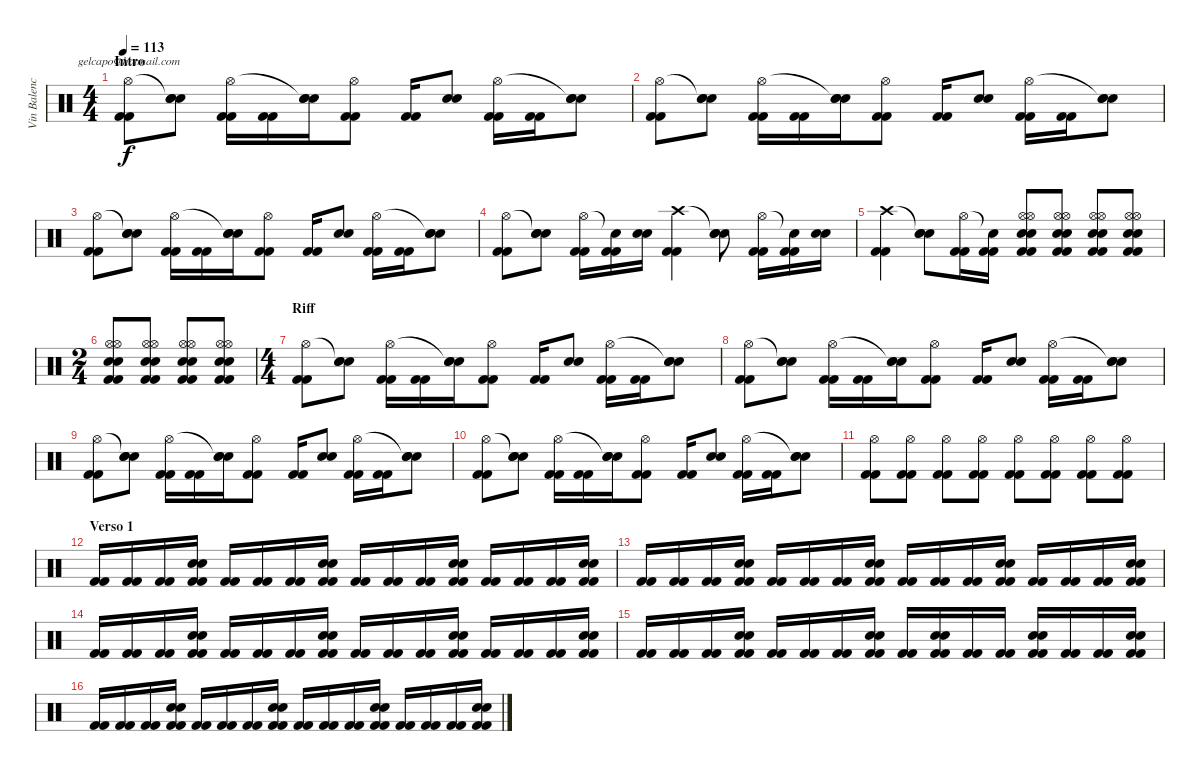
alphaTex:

\track ("Vin Balencia (bateria)" "Vin Balenc") {instrument percussion}
\staff {score}
\articulation defaults
\chord ("gelcapo@hotmail.com") {firstfret 0}
\ts (4 4)
\section ("" "Intro")
\tempo 113
\clef neutral
\ks c
("Kick (hit) 2" "Kick (hit) 2" "Hi-Hat (open)").8{ch "gelcapo@hotmail.com" dy f} ("Snare (hit) 2" "Snare (hit) 2" "Snare (hit)"{t}).8 ("Kick (hit) 2" "Kick (hit) 2" "Hi-Hat (open)").16 ("Kick (hit) 2" "Kick (hit) 2").16 ("Snare (hit) 2" "Snare (hit) 2" "Snare (hit)"{t}).16 ("Kick (hit) 2" "Kick (hit) 2" "Hi-Hat (open)").8 ("Kick (hit) 2" "Kick (hit) 2").16 ("Snare (hit) 2" "Snare (hit) 2").8 ("Kick (hit) 2" "Kick (hit) 2" "Hi-Hat (open)").16 ("Kick (hit) 2" "Kick (hit) 2").16 ("Snare (hit) 2" "Snare (hit) 2" "Snare (hit)"{t}).8 |
("Kick (hit) 2" "Kick (hit) 2" "Hi-Hat (open)").8 ("Snare (hit) 2" "Snare (hit) 2" "Snare (hit)"{t}).8 ("Kick (hit) 2" "Kick (hit) 2" "Hi-Hat (open)").16 ("Kick (hit) 2" "Kick (hit) 2").16 ("Snare (hit) 2" "Snare (hit) 2" "Snare (hit)"{t}).16 ("Kick (hit) 2" "Kick (hit) 2" "Hi-Hat (open)").8 ("Kick (hit) 2" "Kick (hit) 2").16 ("Snare (hit) 2" "Snare (hit) 2").8 ("Kick (hit) 2" "Kick (hit) 2" "Hi-Hat (open)").16 ("Kick (hit) 2" "Kick (hit) 2").16 ("Snare (hit) 2" "Snare (hit) 2" "Snare (hit)"{t}).8 |
("Kick (hit) 2" "Kick (hit) 2" "Hi-Hat (open)").8 ("Snare (hit) 2" "Snare (hit) 2" "Snare (hit)"{t}).8 ("Kick (hit) 2" "Kick (hit) 2" "Hi-Hat (open)").16 ("Kick (hit) 2" "Kick (hit) 2").16 ("Snare (hit) 2" "Snare (hit) 2" "Snare (hit)"{t}).16 ("Kick (hit) 2" "Kick (hit) 2" "Hi-Hat (open)").8 ("Kick (hit) 2" "Kick (hit) 2").16 ("Snare (hit) 2" "Snare (hit) 2").8 ("Kick (hit) 2" "Kick (hit) 2" "Hi-Hat (open)").16 ("Kick (hit) 2" "Kick (hit) 2").16 ("Snare (hit) 2" "Snare (hit) 2" "Snare (hit)"{t}).8 |
("Kick (hit) 2" "Kick (hit) 2" "Hi-Hat (open)").8 ("Snare (hit) 2" "Snare (hit) 2" "Snare (hit)"{t}).8 ("Kick (hit) 2" "Kick (hit) 2" "Hi-Hat (open)").16 ("Kick (hit) 2" "Kick (hit) 2" "Snare (hit)"{t}).16 ("Snare (hit) 2" "Snare (hit) 2").16 ("Kick (hit) 2" "Kick (hit) 2" "Crash high (hit)").4 ("Snare (hit) 2" "Snare (hit) 2" "Snare (hit)"{t}).8 ("Kick (hit) 2" "Kick (hit) 2" "Hi-Hat (open)").16 ("Kick (hit) 2" "Kick (hit) 2" "Snare (hit)"{t}).16 ("Snare (hit) 2" "Snare (hit) 2").16 |
("Kick (hit) 2" "Kick (hit) 2" "Crash high (hit)").4 ("Snare (hit) 2" "Snare (hit) 2" "Snare (hit)"{t}).8 ("Kick (hit) 2" "Kick (hit) 2" "Hi-Hat (open)").16 ("Kick (hit) 2" "Kick (hit) 2" "Snare (hit)"{t}).16 ("Kick (hit) 2" "Kick (hit) 2" "Snare (hit) 2" "Snare (hit) 2" "Hi-Hat (open)" "Hi-Hat (open)").8 ("Kick (hit) 2" "Kick (hit) 2" "Snare (hit) 2" "Snare (hit) 2" "Hi-Hat (open)" "Hi-Hat (open)").8 ("Kick (hit) 2" "Kick (hit) 2" "Snare (hit) 2" "Snare (hit) 2" "Hi-Hat (open)" "Hi-Hat (open)").8 ("Kick (hit) 2" "Kick (hit) 2" "Snare (hit) 2" "Snare (hit) 2" "Hi-Hat (open)" "Hi-Hat (open)").8 |
\ts (2 4)
("Kick (hit) 2" "Kick (hit) 2" "Snare (hit) 2" "Snare (hit) 2" "Hi-Hat (open)" "Hi-Hat (open)").8 ("Kick (hit) 2" "Kick (hit) 2" "Snare (hit) 2" "Snare (hit) 2" "Hi-Hat (open)" "Hi-Hat (open)").8 ("Kick (hit) 2" "Kick (hit) 2" "Snare (hit) 2" "Snare (hit) 2" "Hi-Hat (open)" "Hi-Hat (open)").8 ("Kick (hit) 2" "Kick (hit) 2" "Snare (hit) 2" "Snare (hit) 2" "Hi-Hat (open)" "Hi-Hat (open)").8 |
\ts (4 4)
\section ("" "Riff")
("Kick (hit) 2" "Kick (hit) 2" "Hi-Hat (open)").8 ("Snare (hit) 2" "Snare (hit) 2" "Snare (hit)"{t}).8 ("Kick (hit) 2" "Kick (hit) 2" "Hi-Hat (open)").16 ("Kick (hit) 2" "Kick (hit) 2").16 ("Snare (hit) 2" "Snare (hit) 2" "Snare (hit)"{t}).16 ("Kick (hit) 2" "Kick (hit) 2" "Hi-Hat (open)").8 ("Kick (hit) 2" "Kick (hit) 2").16 ("Snare (hit) 2" "Snare (hit) 2").8 ("Kick (hit) 2" "Kick (hit) 2" "Hi-Hat (open)").16 ("Kick (hit) 2" "Kick (hit) 2").16 ("Snare (hit) 2" "Snare (hit) 2" "Snare (hit)"{t}).8 |
("Kick (hit) 2" "Kick (hit) 2" "Hi-Hat (open)").8 ("Snare (hit) 2" "Snare (hit) 2" "Snare (hit)"{t}).8 ("Kick (hit) 2" "Kick (hit) 2" "Hi-Hat (open)").16 ("Kick (hit) 2" "Kick (hit) 2").16 ("Snare (hit) 2" "Snare (hit) 2" "Snare (hit)"{t}).16 ("Kick (hit) 2" "Kick (hit) 2" "Hi-Hat (open)").8 ("Kick (hit) 2" "Kick (hit) 2").16 ("Snare (hit) 2" "Snare (hit) 2").8 ("Kick (hit) 2" "Kick (hit) 2" "Hi-Hat (open)").16 ("Kick (hit) 2" "Kick (hit) 2").16 ("Snare (hit) 2" "Snare (hit) 2" "Snare (hit)"{t}).8 |
("Kick (hit) 2" "Kick (hit) 2" "Hi-Hat (open)").8 ("Snare (hit) 2" "Snare (hit) 2" "Snare (hit)"{t}).8 ("Kick (hit) 2" "Kick (hit) 2" "Hi-Hat (open)").16 ("Kick (hit) 2" "Kick (hit) 2").16 ("Snare (hit) 2" "Snare (hit) 2" "Snare (hit)"{t}).16 ("Kick (hit) 2" "Kick (hit) 2" "Hi-Hat (open)").8 ("Kick (hit) 2" "Kick (hit) 2").16 ("Snare (hit) 2" "Snare (hit) 2").8 ("Kick (hit) 2" "Kick (hit) 2" "Hi-Hat (open)").16 ("Kick (hit) 2" "Kick (hit) 2").16 ("Snare (hit) 2" "Snare (hit) 2" "Snare (hit)"{t}).8 |
("Kick (hit) 2" "Kick (hit) 2" "Hi-Hat (open)").8 ("Snare (hit) 2" "Snare (hit) 2" "Snare (hit)"{t}).8 ("Kick (hit) 2" "Kick (hit) 2" "Hi-Hat (open)").16 ("Kick (hit) 2" "Kick (hit) 2").16 ("Snare (hit) 2" "Snare (hit) 2" "Snare (hit)"{t}).16 ("Kick (hit) 2" "Kick (hit) 2" "Hi-Hat (open)").8 ("Kick (hit) 2" "Kick (hit) 2").16 ("Snare (hit) 2" "Snare (hit) 2").8 ("Kick (hit) 2" "Kick (hit) 2" "Hi-Hat (open)").16 ("Kick (hit) 2" "Kick (hit) 2").16 ("Snare (hit) 2" "Snare (hit) 2" "Snare (hit)"{t}).8 |
("Hi-Hat (open)" "Kick (hit) 2" "Kick (hit) 2").8 ("Hi-Hat (open)" "Kick (hit) 2" "Kick (hit) 2").8 ("Hi-Hat (open)" "Kick (hit) 2" "Kick (hit) 2").8 ("Hi-Hat (open)" "Kick (hit) 2" "Kick (hit) 2").8 ("Hi-Hat (open)" "Kick (hit) 2" "Kick (hit) 2").8 ("Hi-Hat (open)" "Kick (hit) 2" "Kick (hit) 2").8 ("Hi-Hat (open)" "Kick (hit) 2" "Kick (hit) 2").8 ("Hi-Hat (open)" "Kick (hit) 2" "Kick (hit) 2").8 |
\section ("" "Verso 1")
("Kick (hit) 2" "Kick (hit) 2").16 ("Kick (hit) 2" "Kick (hit) 2").16 ("Kick (hit) 2" "Kick (hit) 2").16 ("Electric Snare (hit)" "Electric Snare (hit)" "Kick (hit) 2" "Kick (hit) 2").16 ("Kick (hit) 2" "Kick (hit) 2").16 ("Kick (hit) 2" "Kick (hit) 2").16 ("Kick (hit) 2" "Kick (hit) 2").16 ("Electric Snare (hit)" "Electric Snare (hit)" "Kick (hit) 2" "Kick (hit) 2").16 ("Kick (hit) 2" "Kick (hit) 2").16 ("Kick (hit) 2" "Kick (hit) 2").16 ("Kick (hit) 2" "Kick (hit) 2").16 ("Electric Snare (hit)" "Electric Snare (hit)" "Kick (hit) 2" "Kick (hit) 2").16 ("Kick (hit) 2" "Kick (hit) 2").16 ("Kick (hit) 2" "Kick (hit) 2").16 ("Kick (hit) 2" "Kick (hit) 2").16 ("Electric Snare (hit)" "Electric Snare (hit)" "Kick (hit) 2" "Kick (hit) 2").16 |
("Kick (hit) 2" "Kick (hit) 2").16 ("Kick (hit) 2" "Kick (hit) 2").16 ("Kick (hit) 2" "Kick (hit) 2").16 ("Electric Snare (hit)" "Electric Snare (hit)" "Kick (hit) 2" "Kick (hit) 2").16 ("Kick (hit) 2" "Kick (hit) 2").16 ("Kick (hit) 2" "Kick (hit) 2").16 ("Kick (hit) 2" "Kick (hit) 2").16 ("Electric Snare (hit)" "Electric Snare (hit)" "Kick (hit) 2" "Kick (hit) 2").16 ("Kick (hit) 2" "Kick (hit) 2").16 ("Kick (hit) 2" "Kick (hit) 2").16 ("Kick (hit) 2" "Kick (hit) 2").16 ("Electric Snare (hit)" "Electric Snare (hit)" "Kick (hit) 2" "Kick (hit) 2").16 ("Kick (hit) 2" "Kick (hit) 2").16 ("Kick (hit) 2" "Kick (hit) 2").16 ("Kick (hit) 2" "Kick (hit) 2").16 ("Electric Snare (hit)" "Electric Snare (hit)" "Kick (hit) 2" "Kick (hit) 2").16 |
("Kick (hit) 2" "Kick (hit) 2").16 ("Kick (hit) 2" "Kick (hit) 2").16 ("Kick (hit) 2" "Kick (hit) 2").16 ("Electric Snare (hit)" "Electric Snare (hit)" "Kick (hit) 2" "Kick (hit) 2").16 ("Kick (hit) 2" "Kick (hit) 2").16 ("Kick (hit) 2" "Kick (hit) 2").16 ("Kick (hit) 2" "Kick (hit) 2").16 ("Electric Snare (hit)" "Electric Snare (hit)" "Kick (hit) 2" "Kick (hit) 2").16 ("Kick (hit) 2" "Kick (hit) 2").16 ("Kick (hit) 2" "Kick (hit) 2").16 ("Kick (hit) 2" "Kick (hit) 2").16 ("Electric Snare (hit)" "Electric Snare (hit)" "Kick (hit) 2" "Kick (hit) 2").16 ("Kick (hit) 2" "Kick (hit) 2").16 ("Kick (hit) 2" "Kick (hit) 2").16 ("Kick (hit) 2" "Kick (hit) 2").16 ("Electric Snare (hit)" "Electric Snare (hit)" "Kick (hit) 2" "Kick (hit) 2").16 |
("Kick (hit) 2" "Kick (hit) 2").16 ("Kick (hit) 2" "Kick (hit) 2").16 ("Kick (hit) 2" "Kick (hit) 2").16 ("Electric Snare (hit)" "Electric Snare (hit)" "Kick (hit) 2" "Kick (hit) 2").16 ("Kick (hit) 2" "Kick (hit) 2").16 ("Kick (hit) 2" "Kick (hit) 2").16 ("Kick (hit) 2" "Kick (hit) 2").16 ("Electric Snare (hit)" "Electric Snare (hit)" "Kick (hit) 2" "Kick (hit) 2").16 ("Kick (hit) 2" "Kick (hit) 2").16 ("Electric Snare (hit)" "Electric Snare (hit)" "Kick (hit) 2" "Kick (hit) 2").16 ("Kick (hit) 2" "Kick (hit) 2").16 ("Kick (hit) 2" "Kick (hit) 2").16 ("Electric Snare (hit)" "Electric Snare (hit)" "Kick (hit) 2" "Kick (hit) 2").16 ("Kick (hit) 2" "Kick (hit) 2").16 ("Kick (hit) 2" "Kick (hit) 2").16 ("Electric Snare (hit)" "Electric Snare (hit)" "Kick (hit) 2" "Kick (hit) 2").16 |
("Kick (hit) 2" "Kick (hit) 2").16 ("Kick (hit) 2" "Kick (hit) 2").16 ("Kick (hit) 2" "Kick (hit) 2").16 ("Electric Snare (hit)" "Electric Snare (hit)" "Kick (hit) 2" "Kick (hit) 2").16 ("Kick (hit) 2" "Kick (hit) 2").16 ("Kick (hit) 2" "Kick (hit) 2").16 ("Kick (hit) 2" "Kick (hit) 2").16 ("Electric Snare (hit)" "Electric Snare (hit)" "Kick (hit) 2" "Kick (hit) 2").16 ("Kick (hit) 2" "Kick (hit) 2").16 ("Kick (hit) 2" "Kick (hit) 2").16 ("Kick (hit) 2" "Kick (hit) 2").16 ("Electric Snare (hit)" "Electric Snare (hit)" "Kick (hit) 2" "Kick (hit) 2").16 ("Kick (hit) 2" "Kick (hit) 2").16 ("Kick (hit) 2" "Kick (hit) 2").16 ("Kick (hit) 2" "Kick (hit) 2").16 ("Electric Snare (hit)" "Electric Snare (hit)" "Kick (hit) 2" "Kick (hit) 2").16
